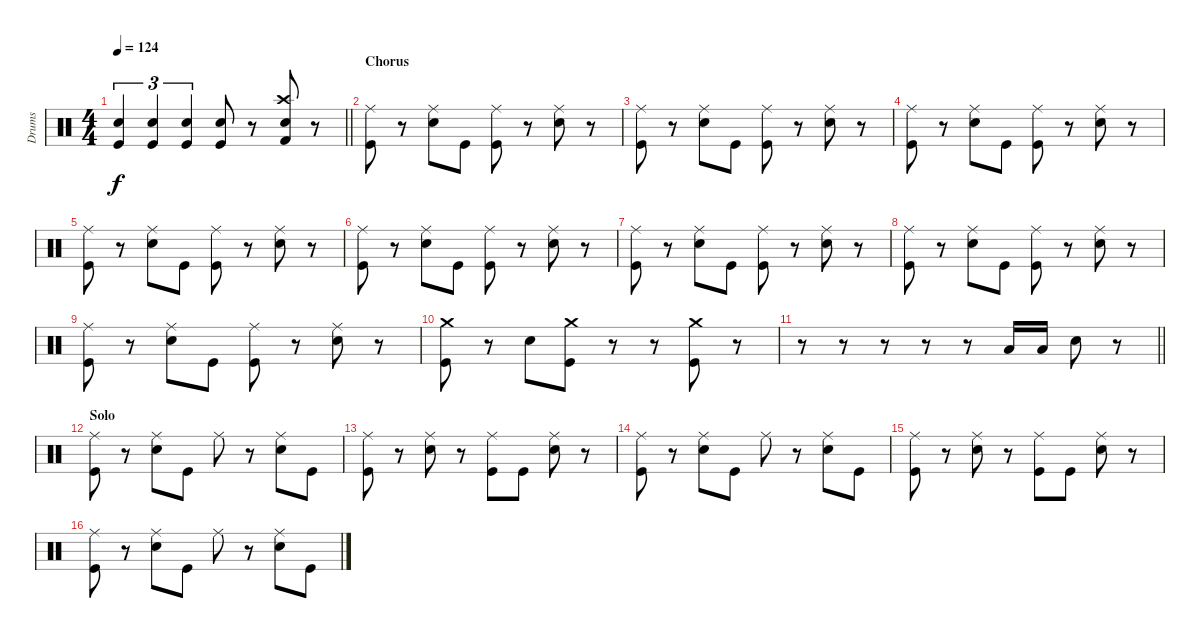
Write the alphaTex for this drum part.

\track ("Drums" "Drums") {instrument percussion}
\staff {score}
\articulation defaults
\ts (4 4)
\tempo 124
\clef neutral
\barLineRight lightlight
\ks c
("Snare (hit) 2" "Kick (hit)").4{tu (3 2) dy f} ("Snare (hit) 2" "Kick (hit)").4{tu (3 2)} ("Snare (hit) 2" "Kick (hit)").4{tu (3 2)} ("Snare (hit) 2" "Kick (hit)").8 r.8 ("Crash high (hit)" "Snare (hit) 2" "Kick (hit) 2").8 r.8 |
\section ("" "Chorus")
("Ride (middle)" "Kick (hit)").8 r.8 ("Ride (middle)" "Snare (hit) 2").8 "Kick (hit)".8 ("Ride (middle)" "Kick (hit)").8 r.8 ("Ride (middle)" "Snare (hit) 2").8 r.8 |
("Ride (middle)" "Kick (hit)").8 r.8 ("Ride (middle)" "Snare (hit) 2").8 "Kick (hit)".8 ("Ride (middle)" "Kick (hit)").8 r.8 ("Ride (middle)" "Snare (hit) 2").8 r.8 |
("Ride (middle)" "Kick (hit)").8 r.8 ("Ride (middle)" "Snare (hit) 2").8 "Kick (hit)".8 ("Ride (middle)" "Kick (hit)").8 r.8 ("Ride (middle)" "Snare (hit) 2").8 r.8 |
("Ride (middle)" "Kick (hit)").8 r.8 ("Ride (middle)" "Snare (hit) 2").8 "Kick (hit)".8 ("Ride (middle)" "Kick (hit)").8 r.8 ("Ride (middle)" "Snare (hit) 2").8 r.8 |
("Ride (middle)" "Kick (hit)").8 r.8 ("Ride (middle)" "Snare (hit) 2").8 "Kick (hit)".8 ("Ride (middle)" "Kick (hit)").8 r.8 ("Ride (middle)" "Snare (hit) 2").8 r.8 |
("Ride (middle)" "Kick (hit)").8 r.8 ("Ride (middle)" "Snare (hit) 2").8 "Kick (hit)".8 ("Ride (middle)" "Kick (hit)").8 r.8 ("Ride (middle)" "Snare (hit) 2").8 r.8 |
("Ride (middle)" "Kick (hit)").8 r.8 ("Ride (middle)" "Snare (hit) 2").8 "Kick (hit)".8 ("Ride (middle)" "Kick (hit)").8 r.8 ("Ride (middle)" "Snare (hit) 2").8 r.8 |
("Ride (middle)" "Kick (hit)").8 r.8 ("Ride (middle)" "Snare (hit) 2").8 "Kick (hit)".8 ("Ride (middle)" "Kick (hit)").8 r.8 ("Ride (middle)" "Snare (hit) 2").8 r.8 |
("Crash medium (hit)" "Kick (hit)").8 r.8 "Snare (hit) 2".8 ("Crash medium (hit)" "Kick (hit)").8 r.8 r.8 ("Crash medium (hit)" "Kick (hit)").8 r.8 |
\barLineRight lightlight
r.8 r.8 r.8 r.8 r.8 "Low Tom (hit)".16 "Low Tom (hit)".16 "Snare (hit) 2".8 r.8 |
\section ("" "Solo")
("Ride (middle)" "Kick (hit)").8 r.8 ("Ride (middle)" "Snare (hit) 2").8 "Kick (hit)".8 "Ride (middle)".8 r.8 ("Ride (middle)" "Snare (hit) 2").8 "Kick (hit)".8 |
("Ride (middle)" "Kick (hit)").8 r.8 ("Ride (middle)" "Snare (hit) 2").8 r.8 ("Ride (middle)" "Kick (hit)").8 "Kick (hit)".8 ("Ride (middle)" "Snare (hit) 2").8 r.8 |
("Ride (middle)" "Kick (hit)").8 r.8 ("Ride (middle)" "Snare (hit) 2").8 "Kick (hit)".8 "Ride (middle)".8 r.8 ("Ride (middle)" "Snare (hit) 2").8 "Kick (hit)".8 |
("Ride (middle)" "Kick (hit)").8 r.8 ("Ride (middle)" "Snare (hit) 2").8 r.8 ("Ride (middle)" "Kick (hit)").8 "Kick (hit)".8 ("Ride (middle)" "Snare (hit) 2").8 r.8 |
("Ride (middle)" "Kick (hit)").8 r.8 ("Ride (middle)" "Snare (hit) 2").8 "Kick (hit)".8 "Ride (middle)".8 r.8 ("Ride (middle)" "Snare (hit) 2").8 "Kick (hit)".8
